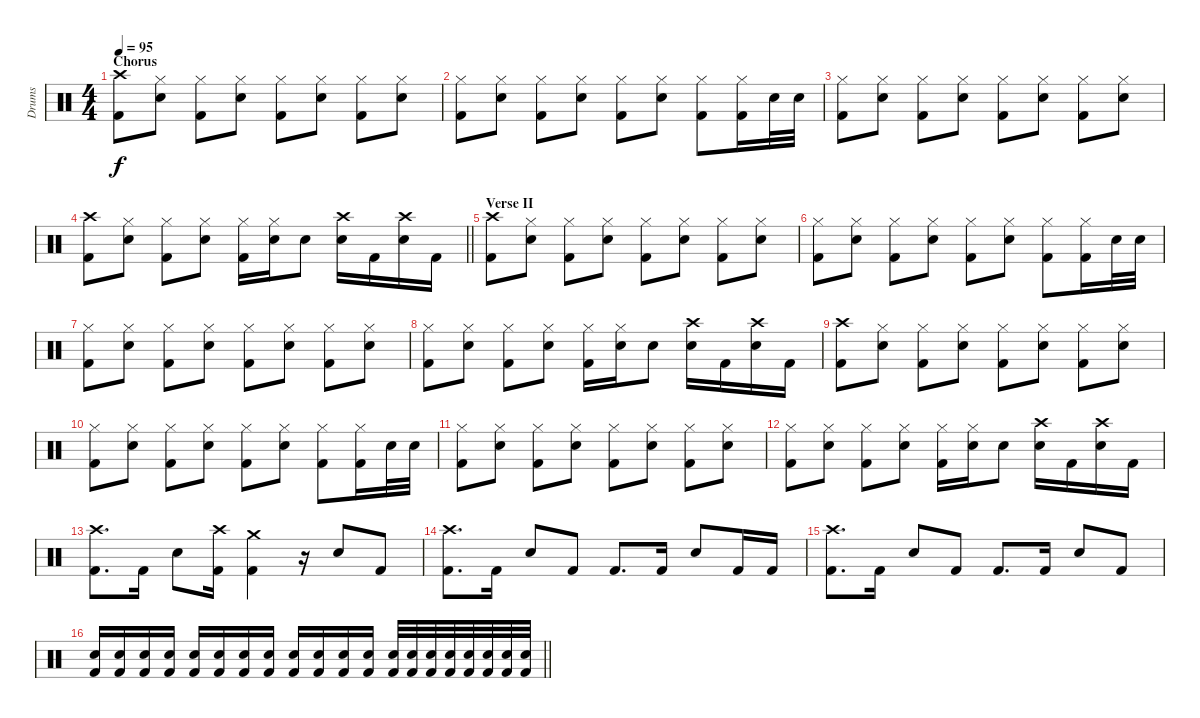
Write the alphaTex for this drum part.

\track ("Drums" "Drums") {instrument percussion}
\staff {score}
\articulation defaults
\ts (4 4)
\section ("" "Chorus")
\tempo 95
\clef neutral
\ks c
("Crash high (hit)" "Kick (hit) 2").8{dy f} ("Hi-Hat (closed)" "Snare (hit) 2").8 ("Hi-Hat (closed)" "Kick (hit) 2").8 ("Hi-Hat (closed)" "Snare (hit) 2").8 ("Hi-Hat (closed)" "Kick (hit) 2").8 ("Hi-Hat (closed)" "Snare (hit) 2").8 ("Hi-Hat (closed)" "Kick (hit) 2").8 ("Hi-Hat (closed)" "Snare (hit) 2").8 |
("Hi-Hat (closed)" "Kick (hit) 2").8 ("Hi-Hat (closed)" "Snare (hit) 2").8 ("Hi-Hat (closed)" "Kick (hit) 2").8 ("Hi-Hat (closed)" "Snare (hit) 2").8 ("Hi-Hat (closed)" "Kick (hit) 2").8 ("Hi-Hat (closed)" "Snare (hit) 2").8 ("Hi-Hat (closed)" "Kick (hit) 2").8 ("Hi-Hat (closed)" "Kick (hit) 2").16 "Snare (hit) 2".32 "Snare (hit) 2".32 |
("Hi-Hat (closed)" "Kick (hit) 2").8 ("Hi-Hat (closed)" "Snare (hit) 2").8 ("Hi-Hat (closed)" "Kick (hit) 2").8 ("Hi-Hat (closed)" "Snare (hit) 2").8 ("Hi-Hat (closed)" "Kick (hit) 2").8 ("Hi-Hat (closed)" "Snare (hit) 2").8 ("Hi-Hat (closed)" "Kick (hit) 2").8 ("Hi-Hat (closed)" "Snare (hit) 2").8 |
\barLineRight lightlight
("Crash high (hit)" "Kick (hit) 2").8 ("Hi-Hat (closed)" "Snare (hit) 2").8 ("Hi-Hat (closed)" "Kick (hit) 2").8 ("Hi-Hat (closed)" "Snare (hit) 2").8 ("Hi-Hat (closed)" "Kick (hit) 2").16 ("Hi-Hat (closed)" "Snare (hit) 2").16 "Snare (hit) 2".8 ("Crash high (hit)" "Snare (hit) 2").16 "Kick (hit) 2".16 ("Crash high (hit)" "Snare (hit) 2").16 "Kick (hit) 2".16 |
\section ("" "Verse II")
("Crash high (hit)" "Kick (hit) 2").8 ("Hi-Hat (closed)" "Snare (hit) 2").8 ("Hi-Hat (closed)" "Kick (hit) 2").8 ("Hi-Hat (closed)" "Snare (hit) 2").8 ("Hi-Hat (closed)" "Kick (hit) 2").8 ("Hi-Hat (closed)" "Snare (hit) 2").8 ("Hi-Hat (closed)" "Kick (hit) 2").8 ("Hi-Hat (closed)" "Snare (hit) 2").8 |
("Hi-Hat (closed)" "Kick (hit) 2").8 ("Hi-Hat (closed)" "Snare (hit) 2").8 ("Hi-Hat (closed)" "Kick (hit) 2").8 ("Hi-Hat (closed)" "Snare (hit) 2").8 ("Hi-Hat (closed)" "Kick (hit) 2").8 ("Hi-Hat (closed)" "Snare (hit) 2").8 ("Hi-Hat (closed)" "Kick (hit) 2").8 ("Hi-Hat (closed)" "Kick (hit) 2").16 "Snare (hit) 2".32 "Snare (hit) 2".32 |
("Hi-Hat (closed)" "Kick (hit) 2").8 ("Hi-Hat (closed)" "Snare (hit) 2").8 ("Hi-Hat (closed)" "Kick (hit) 2").8 ("Hi-Hat (closed)" "Snare (hit) 2").8 ("Hi-Hat (closed)" "Kick (hit) 2").8 ("Hi-Hat (closed)" "Snare (hit) 2").8 ("Hi-Hat (closed)" "Kick (hit) 2").8 ("Hi-Hat (closed)" "Snare (hit) 2").8 |
("Hi-Hat (closed)" "Kick (hit) 2").8 ("Hi-Hat (closed)" "Snare (hit) 2").8 ("Hi-Hat (closed)" "Kick (hit) 2").8 ("Hi-Hat (closed)" "Snare (hit) 2").8 ("Hi-Hat (closed)" "Kick (hit) 2").16 ("Hi-Hat (closed)" "Snare (hit) 2").16 "Snare (hit) 2".8 ("Crash high (hit)" "Snare (hit) 2").16 "Kick (hit) 2".16 ("Crash high (hit)" "Snare (hit) 2").16 "Kick (hit) 2".16 |
("Crash high (hit)" "Kick (hit) 2").8 ("Hi-Hat (closed)" "Snare (hit) 2").8 ("Hi-Hat (closed)" "Kick (hit) 2").8 ("Hi-Hat (closed)" "Snare (hit) 2").8 ("Hi-Hat (closed)" "Kick (hit) 2").8 ("Hi-Hat (closed)" "Snare (hit) 2").8 ("Hi-Hat (closed)" "Kick (hit) 2").8 ("Hi-Hat (closed)" "Snare (hit) 2").8 |
("Hi-Hat (closed)" "Kick (hit) 2").8 ("Hi-Hat (closed)" "Snare (hit) 2").8 ("Hi-Hat (closed)" "Kick (hit) 2").8 ("Hi-Hat (closed)" "Snare (hit) 2").8 ("Hi-Hat (closed)" "Kick (hit) 2").8 ("Hi-Hat (closed)" "Snare (hit) 2").8 ("Hi-Hat (closed)" "Kick (hit) 2").8 ("Hi-Hat (closed)" "Kick (hit) 2").16 "Snare (hit) 2".32 "Snare (hit) 2".32 |
("Hi-Hat (closed)" "Kick (hit) 2").8 ("Hi-Hat (closed)" "Snare (hit) 2").8 ("Hi-Hat (closed)" "Kick (hit) 2").8 ("Hi-Hat (closed)" "Snare (hit) 2").8 ("Hi-Hat (closed)" "Kick (hit) 2").8 ("Hi-Hat (closed)" "Snare (hit) 2").8 ("Hi-Hat (closed)" "Kick (hit) 2").8 ("Hi-Hat (closed)" "Snare (hit) 2").8 |
("Hi-Hat (closed)" "Kick (hit) 2").8 ("Hi-Hat (closed)" "Snare (hit) 2").8 ("Hi-Hat (closed)" "Kick (hit) 2").8 ("Hi-Hat (closed)" "Snare (hit) 2").8 ("Hi-Hat (closed)" "Kick (hit) 2").16 ("Hi-Hat (closed)" "Snare (hit) 2").16 "Snare (hit) 2".8 ("Crash high (hit)" "Snare (hit) 2").16 "Kick (hit) 2".16 ("Crash high (hit)" "Snare (hit) 2").16 "Kick (hit) 2".16 |
("Crash high (hit)" "Kick (hit) 2").8{d} "Kick (hit) 2".16 "Snare (hit) 2".8 ("Crash high (hit)" "Kick (hit) 2").16 ("Crash medium (hit)" "Kick (hit) 2").4 r.16 "Snare (hit) 2".8 "Kick (hit) 2".8 |
("Crash high (hit)" "Kick (hit) 2").8{d} "Kick (hit) 2".16 "Snare (hit) 2".8 "Kick (hit) 2".8 "Kick (hit) 2".8{d} "Kick (hit) 2".16 "Snare (hit) 2".8 "Kick (hit) 2".16 "Kick (hit) 2".16 |
("Crash high (hit)" "Kick (hit) 2").8{d} "Kick (hit) 2".16 "Snare (hit) 2".8 "Kick (hit) 2".8 "Kick (hit) 2".8{d} "Kick (hit) 2".16 "Snare (hit) 2".8 "Kick (hit) 2".8 |
\barLineRight lightlight
("Snare (hit) 2" "Kick (hit) 2").16 ("Snare (hit) 2" "Kick (hit) 2").16 ("Snare (hit) 2" "Kick (hit) 2").16 ("Snare (hit) 2" "Kick (hit) 2").16 ("Snare (hit) 2" "Kick (hit) 2").16 ("Snare (hit) 2" "Kick (hit) 2").16 ("Snare (hit) 2" "Kick (hit) 2").16 ("Snare (hit) 2" "Kick (hit) 2").16 ("Snare (hit) 2" "Kick (hit) 2").16 ("Snare (hit) 2" "Kick (hit) 2").16 ("Snare (hit) 2" "Kick (hit) 2").16 ("Snare (hit) 2" "Kick (hit) 2").16 ("Snare (hit) 2" "Kick (hit) 2").32 ("Snare (hit) 2" "Kick (hit) 2").32 ("Snare (hit) 2" "Kick (hit) 2").32 ("Snare (hit) 2" "Kick (hit) 2").32 ("Electric Snare (hit)" "Kick (hit) 2").32 ("Electric Snare (hit)" "Kick (hit) 2").32 ("Electric Snare (hit)" "Kick (hit) 2").32 ("Electric Snare (hit)" "Kick (hit) 2").32
